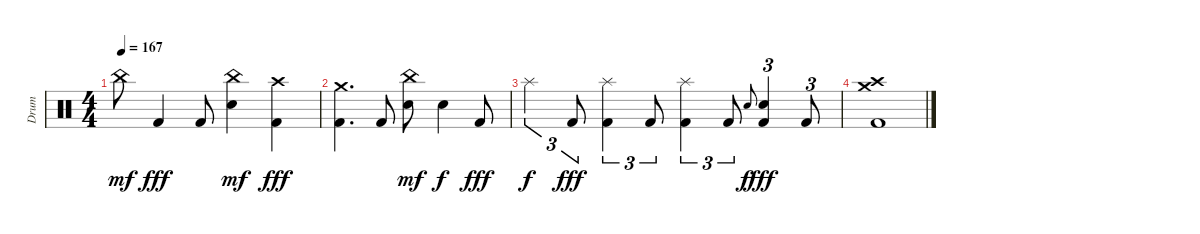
\track ("Drum" "Drum") {instrument percussion}
\staff {score}
\articulation defaults
\ts (4 4)
\tempo 167
\clef neutral
\ks c "China (hit)".8{dy mf} "Kick (hit) 2".4{dy fff} "Kick (hit) 2".8
("China (hit)" "Electric Snare (hit)").4{dy mf} ("Crash high (hit)" "Kick (hit) 2").4{dy fff} |
("Crash medium (hit)" "Kick (hit) 2").4{d} "Kick (hit) 2".8 ("China (hit)" "Electric Snare (hit)").8{dy mf} "Electric Snare (hit)".4{dy f} "Kick (hit) 2".8{dy fff} |
"Splash (hit)".4{tu (3 2) dy f} "Kick (hit) 2".8{tu (3 2) dy fff} ("Splash (hit)" "Kick (hit) 2").4{tu (3 2)} "Kick (hit) 2".8{tu (3 2)} ("Splash (hit)" "Kick (hit) 2").4{tu (3 2)} "Kick (hit) 2".8{tu (3 2)} "Electric Snare (hit)".8{gr onbeat dy f} ("Electric Snare (hit)" "Kick (hit) 2").4{tu (3 2) dy fff} "Kick (hit) 2".8{tu (3 2)} |
("Crash high (hit)" "Crash medium (hit)" "Kick (hit) 2").1
